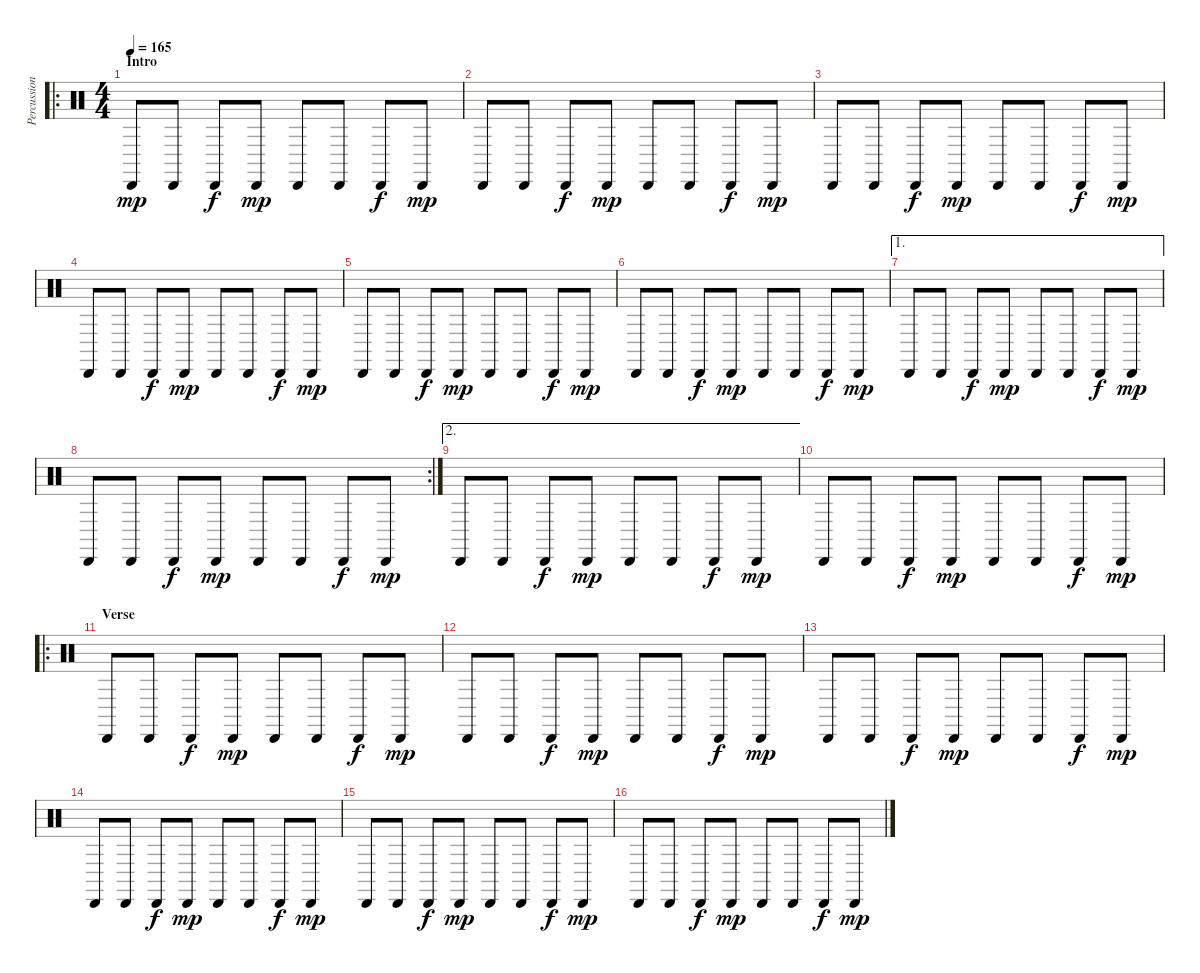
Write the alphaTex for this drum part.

\track ("Percussion" "Percussion") {instrument percussion}
\staff {score}
\articulation defaults
\ro
\ts (4 4)
\section ("" "Intro")
\tempo 165
\clef neutral
\ks c "Cabasa (hit)".8{dy mp} "Cabasa (hit)".8 "Cabasa (hit)".8{dy f} "Cabasa (hit)".8{dy mp} "Cabasa (hit)".8 "Cabasa (hit)".8 "Cabasa (hit)".8{dy f} "Cabasa (hit)".8{dy mp}
|
"Cabasa (hit)".8 "Cabasa (hit)".8 "Cabasa (hit)".8{dy f} "Cabasa (hit)".8{dy mp} "Cabasa (hit)".8 "Cabasa (hit)".8 "Cabasa (hit)".8{dy f} "Cabasa (hit)".8{dy mp} |
"Cabasa (hit)".8 "Cabasa (hit)".8 "Cabasa (hit)".8{dy f} "Cabasa (hit)".8{dy mp} "Cabasa (hit)".8 "Cabasa (hit)".8 "Cabasa (hit)".8{dy f} "Cabasa (hit)".8{dy mp} |
"Cabasa (hit)".8 "Cabasa (hit)".8 "Cabasa (hit)".8{dy f} "Cabasa (hit)".8{dy mp} "Cabasa (hit)".8 "Cabasa (hit)".8 "Cabasa (hit)".8{dy f} "Cabasa (hit)".8{dy mp} |
"Cabasa (hit)".8 "Cabasa (hit)".8 "Cabasa (hit)".8{dy f} "Cabasa (hit)".8{dy mp} "Cabasa (hit)".8 "Cabasa (hit)".8 "Cabasa (hit)".8{dy f} "Cabasa (hit)".8{dy mp} |
"Cabasa (hit)".8 "Cabasa (hit)".8 "Cabasa (hit)".8{dy f} "Cabasa (hit)".8{dy mp} "Cabasa (hit)".8 "Cabasa (hit)".8 "Cabasa (hit)".8{dy f} "Cabasa (hit)".8{dy mp} |
\ae 1 "Cabasa (hit)".8 "Cabasa (hit)".8 "Cabasa (hit)".8{dy f} "Cabasa (hit)".8{dy mp} "Cabasa (hit)".8 "Cabasa (hit)".8 "Cabasa (hit)".8{dy f} "Cabasa (hit)".8{dy mp}
|
\rc 2 "Cabasa (hit)".8 "Cabasa (hit)".8 "Cabasa (hit)".8{dy f} "Cabasa (hit)".8{dy mp} "Cabasa (hit)".8 "Cabasa (hit)".8 "Cabasa (hit)".8{dy f} "Cabasa (hit)".8{dy mp}
|
\ae 2 "Cabasa (hit)".8 "Cabasa (hit)".8 "Cabasa (hit)".8{dy f} "Cabasa (hit)".8{dy mp} "Cabasa (hit)".8 "Cabasa (hit)".8 "Cabasa (hit)".8{dy f} "Cabasa (hit)".8{dy mp}
|
"Cabasa (hit)".8 "Cabasa (hit)".8 "Cabasa (hit)".8{dy f} "Cabasa (hit)".8{dy mp} "Cabasa (hit)".8 "Cabasa (hit)".8 "Cabasa (hit)".8{dy f} "Cabasa (hit)".8{dy mp} |
\ro
\section ("" "Verse")
"Cabasa (hit)".8 "Cabasa (hit)".8 "Cabasa (hit)".8{dy f} "Cabasa (hit)".8{dy mp} "Cabasa (hit)".8 "Cabasa (hit)".8 "Cabasa (hit)".8{dy f} "Cabasa (hit)".8{dy mp} |
"Cabasa (hit)".8 "Cabasa (hit)".8 "Cabasa (hit)".8{dy f} "Cabasa (hit)".8{dy mp} "Cabasa (hit)".8 "Cabasa (hit)".8 "Cabasa (hit)".8{dy f} "Cabasa (hit)".8{dy mp} |
"Cabasa (hit)".8 "Cabasa (hit)".8 "Cabasa (hit)".8{dy f} "Cabasa (hit)".8{dy mp} "Cabasa (hit)".8 "Cabasa (hit)".8 "Cabasa (hit)".8{dy f} "Cabasa (hit)".8{dy mp} |
"Cabasa (hit)".8 "Cabasa (hit)".8 "Cabasa (hit)".8{dy f} "Cabasa (hit)".8{dy mp} "Cabasa (hit)".8 "Cabasa (hit)".8 "Cabasa (hit)".8{dy f} "Cabasa (hit)".8{dy mp} |
"Cabasa (hit)".8 "Cabasa (hit)".8 "Cabasa (hit)".8{dy f} "Cabasa (hit)".8{dy mp} "Cabasa (hit)".8 "Cabasa (hit)".8 "Cabasa (hit)".8{dy f} "Cabasa (hit)".8{dy mp} |
"Cabasa (hit)".8 "Cabasa (hit)".8 "Cabasa (hit)".8{dy f} "Cabasa (hit)".8{dy mp} "Cabasa (hit)".8 "Cabasa (hit)".8 "Cabasa (hit)".8{dy f} "Cabasa (hit)".8{dy mp}
